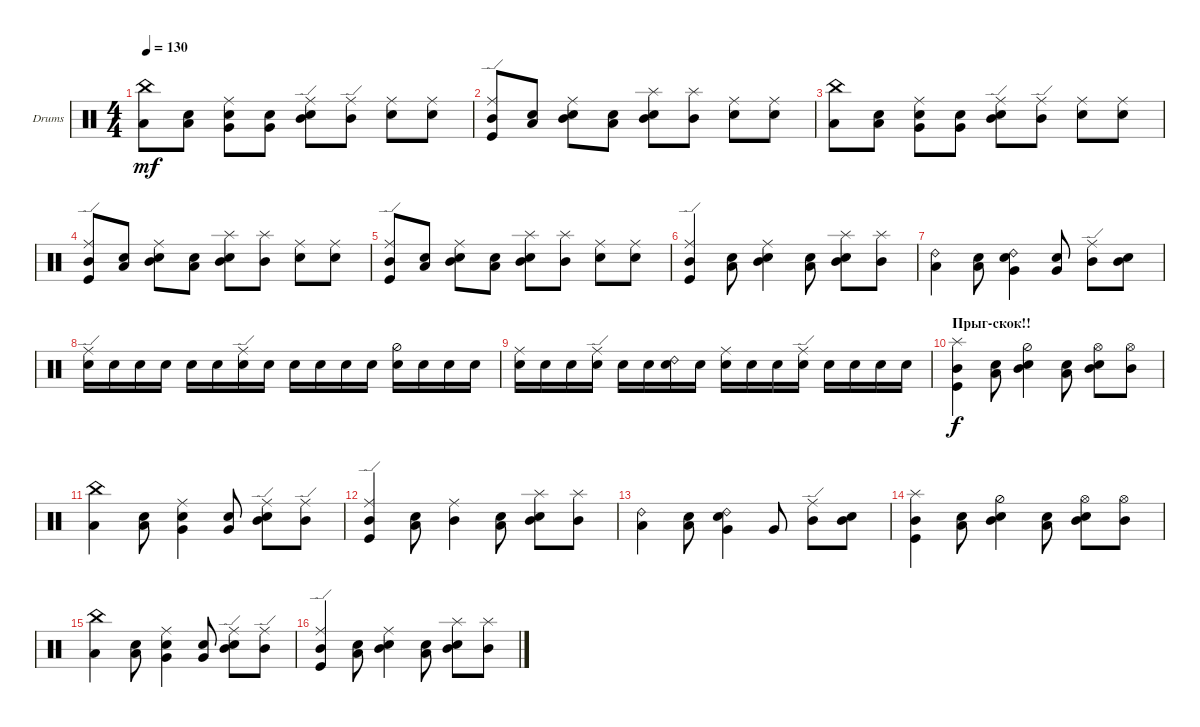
\defaultSystemsLayout 4
\bracketExtendMode groupsimilarinstruments
\firstSystemTrackNameOrientation horizontal
\otherSystemsTrackNameOrientation horizontal
\track ("Drumkit" "Drums") {instrument percussion}
\staff {score}
\articulation defaults
\ts (4 4)
\tempo 130
\clef neutral
\ks c
("Low Tom (hit)" "China (hit)").8{dy mf} ("Low Tom (hit)" "Snare (hit) 2").8 ("Very Low Tom (hit)" "Snare (hit) 2" "Ride (middle)").8 ("Very Low Tom (hit)" "Snare (hit) 2").8 ("Mid Tom (hit)" "Snare (hit) 2" "Ride (edge)").8 ("Mid Tom (hit)" "Ride (edge)").8 ("Snare (hit) 2" "Ride (middle)").8 ("Snare (hit) 2" "Ride (middle)").8 |
("Mid Tom (hit)" "Kick (hit)" "Ride (edge)").8 ("Low Tom (hit)" "Snare (hit) 2").8 ("Mid Tom (hit)" "Snare (hit) 2" "Ride (middle)").8 ("Low Tom (hit)" "Snare (hit) 2").8 ("Mid Tom (hit)" "Snare (hit) 2" "Splash (hit)").8 ("Mid Tom (hit)" "Splash (hit)").8 ("Ride (middle)" "Snare (hit) 2").8 ("Ride (middle)" "Snare (hit) 2").8 |
("Low Tom (hit)" "China (hit)").8 ("Low Tom (hit)" "Snare (hit) 2").8 ("Very Low Tom (hit)" "Snare (hit) 2" "Ride (middle)").8 ("Very Low Tom (hit)" "Snare (hit) 2").8 ("Mid Tom (hit)" "Snare (hit) 2" "Ride (edge)").8 ("Mid Tom (hit)" "Ride (edge)").8 ("Snare (hit) 2" "Ride (middle)").8 ("Snare (hit) 2" "Ride (middle)").8 |
("Mid Tom (hit)" "Kick (hit)" "Ride (edge)").8 ("Low Tom (hit)" "Snare (hit) 2").8 ("Mid Tom (hit)" "Snare (hit) 2" "Ride (middle)").8 ("Low Tom (hit)" "Snare (hit) 2").8 ("Mid Tom (hit)" "Snare (hit) 2" "Splash (hit)").8 ("Mid Tom (hit)" "Splash (hit)").8 ("Ride (middle)" "Snare (hit) 2").8 ("Ride (middle)" "Snare (hit) 2").8 |
("Mid Tom (hit)" "Kick (hit)" "Ride (edge)").8 ("Low Tom (hit)" "Snare (hit) 2").8 ("Mid Tom (hit)" "Snare (hit) 2" "Ride (middle)").8 ("Low Tom (hit)" "Snare (hit) 2").8 ("Mid Tom (hit)" "Snare (hit) 2" "Splash (hit)").8 ("Mid Tom (hit)" "Splash (hit)").8 ("Ride (middle)" "Snare (hit) 2").8 ("Ride (middle)" "Snare (hit) 2").8 |
("Mid Tom (hit)" "Kick (hit)" "Ride (edge)").4 ("Low Tom (hit)" "Snare (hit) 2").8 ("Mid Tom (hit)" "Snare (hit) 2" "Ride (middle)").4 ("Low Tom (hit)" "Snare (hit) 2").8 ("Mid Tom (hit)" "Snare (hit) 2" "Splash (hit)").8 ("Mid Tom (hit)" "Splash (hit)").8 |
("Low Tom (hit)" "Ride (bell) 2").4 ("Low Tom (hit)" "Snare (hit) 2").8 ("Very Low Tom (hit)" "Snare (hit) 2" "Ride (bell) 2").4 ("Very Low Tom (hit)" "Snare (hit) 2").8 ("Mid Tom (hit)" "Ride (edge)").8 ("Mid Tom (hit)" "Snare (hit) 2").8 |
("Snare (hit) 2" "Ride (edge)").16 "Snare (hit) 2".16 "Snare (hit) 2".16 "Snare (hit) 2".16 "Snare (hit) 2".16 "Snare (hit) 2".16 ("Snare (hit) 2" "Ride (edge)").16 "Snare (hit) 2".16 "Snare (hit) 2".16 "Snare (hit) 2".16 "Snare (hit) 2".16 "Snare (hit) 2".16 ("Snare (hit) 2" "Hi-Hat (half)").16 "Snare (hit) 2".16 "Snare (hit) 2".16 "Snare (hit) 2".16 |
("Snare (hit) 2" "Ride (middle)").16 "Snare (hit) 2".16 "Snare (hit) 2".16 ("Snare (hit) 2" "Ride (edge)").16 "Snare (hit) 2".16 "Snare (hit) 2".16 ("Snare (hit) 2" "Ride (bell) 2").16 "Snare (hit) 2".16 ("Snare (hit) 2" "Ride (middle)").16 "Snare (hit) 2".16 "Snare (hit) 2".16 ("Snare (hit) 2" "Ride (edge)").16 "Snare (hit) 2".16 "Snare (hit) 2".16 "Snare (hit) 2".16 "Snare (hit) 2".16 |
\section ("" "Прыг-скок!!")
("Mid Tom (hit)" "Kick (hit)" "Splash (hit)").4{dy f} ("Low Tom (hit)" "Snare (hit) 2").8 ("Mid Tom (hit)" "Snare (hit) 2" "Hi-Hat (half)").4 ("Low Tom (hit)" "Snare (hit) 2").8 ("Mid Tom (hit)" "Snare (hit) 2" "Hi-Hat (open)").8 ("Mid Tom (hit)" "Hi-Hat (open)").8 |
("Low Tom (hit)" "China (hit)").4 ("Low Tom (hit)" "Snare (hit) 2").8 ("Very Low Tom (hit)" "Snare (hit) 2" "Ride (middle)").4 ("Very Low Tom (hit)" "Snare (hit) 2").8 ("Mid Tom (hit)" "Snare (hit) 2" "Ride (edge)").8 ("Mid Tom (hit)" "Ride (edge)").8 |
("Mid Tom (hit)" "Kick (hit)" "Ride (edge)").4 ("Low Tom (hit)" "Snare (hit) 2").8 ("Mid Tom (hit)" "Ride (middle)").4 ("Low Tom (hit)" "Snare (hit) 2").8 ("Mid Tom (hit)" "Snare (hit) 2" "Splash (hit)").8 ("Mid Tom (hit)" "Splash (hit)").8 |
("Low Tom (hit)" "Ride (bell) 2").4 ("Low Tom (hit)" "Snare (hit) 2").8 ("Very Low Tom (hit)" "Snare (hit) 2" "Ride (bell) 2").4 "Very Low Tom (hit)".8 ("Mid Tom (hit)" "Ride (edge)").8 ("Mid Tom (hit)" "Snare (hit) 2").8 |
("Mid Tom (hit)" "Kick (hit)" "Splash (hit)").4 ("Low Tom (hit)" "Snare (hit) 2").8 ("Mid Tom (hit)" "Snare (hit) 2" "Hi-Hat (half)").4 ("Low Tom (hit)" "Snare (hit) 2").8 ("Mid Tom (hit)" "Snare (hit) 2" "Hi-Hat (open)").8 ("Mid Tom (hit)" "Hi-Hat (open)").8 |
("Low Tom (hit)" "China (hit)").4 ("Low Tom (hit)" "Snare (hit) 2").8 ("Very Low Tom (hit)" "Snare (hit) 2" "Ride (middle)").4 ("Very Low Tom (hit)" "Snare (hit) 2").8 ("Mid Tom (hit)" "Snare (hit) 2" "Ride (edge)").8 ("Mid Tom (hit)" "Ride (edge)").8 |
("Mid Tom (hit)" "Kick (hit)" "Ride (edge)").4 ("Low Tom (hit)" "Snare (hit) 2").8 ("Mid Tom (hit)" "Snare (hit) 2" "Ride (middle)").4 ("Low Tom (hit)" "Snare (hit) 2").8 ("Mid Tom (hit)" "Snare (hit) 2" "Splash (hit)").8 ("Mid Tom (hit)" "Splash (hit)").8
